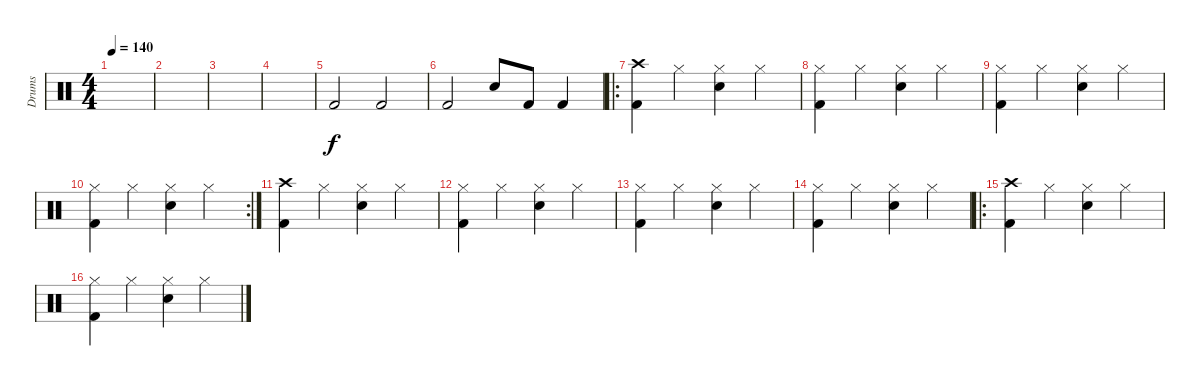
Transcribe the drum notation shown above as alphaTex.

\track ("Drums" "Drums") {instrument percussion}
\staff {score}
\articulation defaults
\ts (4 4)
\tempo 140
\clef neutral
\ks c
|
|
|
|
"Kick (hit) 2".2 "Kick (hit) 2".2 |
"Kick (hit) 2".2 "Snare (hit) 2".8 "Kick (hit) 2".8 "Kick (hit) 2".4 |
\ro
("Crash high (hit)" "Kick (hit) 2").4 "Hi-Hat (closed)".4 ("Hi-Hat (closed)" "Snare (hit) 2").4 "Hi-Hat (closed)".4 |
("Hi-Hat (closed)" "Kick (hit) 2").4 "Hi-Hat (closed)".4 ("Hi-Hat (closed)" "Snare (hit) 2").4 "Hi-Hat (closed)".4 |
("Hi-Hat (closed)" "Kick (hit) 2").4 "Hi-Hat (closed)".4 ("Hi-Hat (closed)" "Snare (hit) 2").4 "Hi-Hat (closed)".4 |
\rc 2
("Hi-Hat (closed)" "Kick (hit) 2").4 "Hi-Hat (closed)".4 ("Hi-Hat (closed)" "Snare (hit) 2").4 "Hi-Hat (closed)".4 |
("Crash high (hit)" "Kick (hit) 2").4 "Hi-Hat (closed)".4 ("Hi-Hat (closed)" "Snare (hit) 2").4 "Hi-Hat (closed)".4 |
("Hi-Hat (closed)" "Kick (hit) 2").4 "Hi-Hat (closed)".4 ("Hi-Hat (closed)" "Snare (hit) 2").4 "Hi-Hat (closed)".4 |
("Hi-Hat (closed)" "Kick (hit) 2").4 "Hi-Hat (closed)".4 ("Hi-Hat (closed)" "Snare (hit) 2").4 "Hi-Hat (closed)".4 |
("Hi-Hat (closed)" "Kick (hit) 2").4 "Hi-Hat (closed)".4 ("Hi-Hat (closed)" "Snare (hit) 2").4 "Hi-Hat (closed)".4 |
\ro
("Crash high (hit)" "Kick (hit) 2").4 "Hi-Hat (closed)".4 ("Hi-Hat (closed)" "Snare (hit) 2").4 "Hi-Hat (closed)".4 |
("Hi-Hat (closed)" "Kick (hit) 2").4 "Hi-Hat (closed)".4 ("Hi-Hat (closed)" "Snare (hit) 2").4 "Hi-Hat (closed)".4
